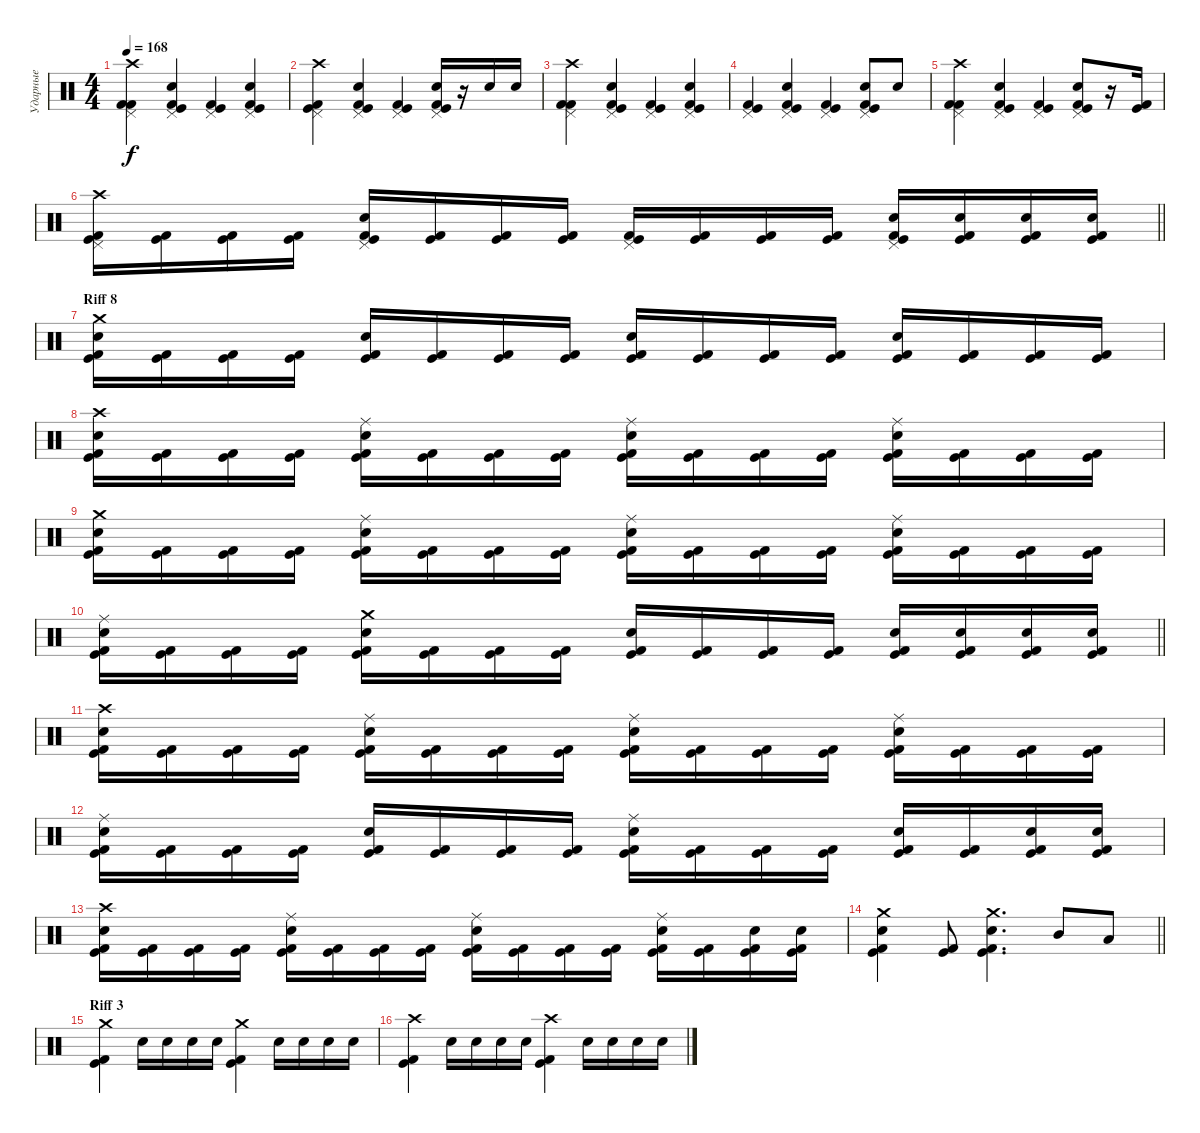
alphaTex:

\track ("Ударные" "Ударные") {instrument percussion}
\staff {score}
\articulation defaults
\ts (4 4)
\tempo 168
\clef neutral
\ks c
("Crash high (hit)" "Pedal Hi-Hat (hit)" "Kick (hit) 2" "Kick (hit) 2").4{dy f} ("Pedal Hi-Hat (hit)" "Electric Snare (hit)" "Kick (hit)" "Kick (hit) 2").4 ("Pedal Hi-Hat (hit)" "Kick (hit)" "Kick (hit) 2").4 ("Pedal Hi-Hat (hit)" "Electric Snare (hit)" "Kick (hit)" "Kick (hit) 2").4 |
("Crash high (hit)" "Pedal Hi-Hat (hit)" "Kick (hit)" "Kick (hit) 2").4 ("Pedal Hi-Hat (hit)" "Electric Snare (hit)" "Kick (hit)" "Kick (hit) 2").4 ("Pedal Hi-Hat (hit)" "Kick (hit)" "Kick (hit) 2").4 ("Pedal Hi-Hat (hit)" "Electric Snare (hit)" "Kick (hit)" "Kick (hit) 2").16 r.16 "Electric Snare (hit)".16 "Electric Snare (hit)".16 |
("Crash high (hit)" "Pedal Hi-Hat (hit)" "Kick (hit) 2" "Kick (hit) 2").4 ("Pedal Hi-Hat (hit)" "Electric Snare (hit)" "Kick (hit)" "Kick (hit) 2").4 ("Pedal Hi-Hat (hit)" "Kick (hit)" "Kick (hit) 2").4 ("Pedal Hi-Hat (hit)" "Electric Snare (hit)" "Kick (hit)" "Kick (hit) 2").4 |
("Pedal Hi-Hat (hit)" "Kick (hit)" "Kick (hit) 2").4 ("Pedal Hi-Hat (hit)" "Electric Snare (hit)" "Kick (hit)" "Kick (hit) 2").4 ("Pedal Hi-Hat (hit)" "Kick (hit)" "Kick (hit) 2").4 ("Pedal Hi-Hat (hit)" "Electric Snare (hit)" "Kick (hit)" "Kick (hit) 2").8 "Electric Snare (hit)".8 |
("Crash high (hit)" "Pedal Hi-Hat (hit)" "Kick (hit) 2" "Kick (hit) 2").4 ("Pedal Hi-Hat (hit)" "Electric Snare (hit)" "Kick (hit)" "Kick (hit) 2").4 ("Pedal Hi-Hat (hit)" "Kick (hit)" "Kick (hit) 2").4 ("Pedal Hi-Hat (hit)" "Electric Snare (hit)" "Kick (hit)" "Kick (hit) 2").8 r.16 ("Kick (hit)" "Kick (hit) 2").16 |
\barLineRight lightlight
("Crash high (hit)" "Pedal Hi-Hat (hit)" "Kick (hit)" "Kick (hit) 2").16 ("Kick (hit)" "Kick (hit) 2").16 ("Kick (hit)" "Kick (hit) 2").16 ("Kick (hit)" "Kick (hit) 2").16 ("Pedal Hi-Hat (hit)" "Electric Snare (hit)" "Kick (hit)" "Kick (hit) 2").16 ("Kick (hit)" "Kick (hit) 2").16 ("Kick (hit)" "Kick (hit) 2").16 ("Kick (hit)" "Kick (hit) 2").16 ("Pedal Hi-Hat (hit)" "Kick (hit)" "Kick (hit) 2").16 ("Kick (hit)" "Kick (hit) 2").16 ("Kick (hit)" "Kick (hit) 2").16 ("Kick (hit)" "Kick (hit) 2").16 ("Pedal Hi-Hat (hit)" "Electric Snare (hit)" "Kick (hit)" "Kick (hit) 2").16 ("Electric Snare (hit)" "Kick (hit)" "Kick (hit) 2").16 ("Electric Snare (hit)" "Kick (hit)" "Kick (hit) 2").16 ("Electric Snare (hit)" "Kick (hit)" "Kick (hit) 2").16 |
\section ("" "Riff 8")
("Crash medium (hit)" "Electric Snare (hit)" "Kick (hit)" "Kick (hit) 2").16 ("Kick (hit)" "Kick (hit) 2").16 ("Kick (hit)" "Kick (hit) 2").16 ("Kick (hit)" "Kick (hit) 2").16 ("Electric Snare (hit)" "Kick (hit)" "Kick (hit) 2").16 ("Kick (hit)" "Kick (hit) 2").16 ("Kick (hit)" "Kick (hit) 2").16 ("Kick (hit)" "Kick (hit) 2").16 ("Electric Snare (hit)" "Kick (hit)" "Kick (hit) 2").16 ("Kick (hit)" "Kick (hit) 2").16 ("Kick (hit)" "Kick (hit) 2").16 ("Kick (hit)" "Kick (hit) 2").16 ("Electric Snare (hit)" "Kick (hit)" "Kick (hit) 2").16 ("Kick (hit)" "Kick (hit) 2").16 ("Kick (hit)" "Kick (hit) 2").16 ("Kick (hit)" "Kick (hit) 2").16 |
("Crash high (hit)" "Electric Snare (hit)" "Kick (hit)" "Kick (hit) 2").16 ("Kick (hit)" "Kick (hit) 2").16 ("Kick (hit)" "Kick (hit) 2").16 ("Kick (hit)" "Kick (hit) 2").16 ("Ride (middle)" "Electric Snare (hit)" "Kick (hit)" "Kick (hit) 2").16 ("Kick (hit)" "Kick (hit) 2").16 ("Kick (hit)" "Kick (hit) 2").16 ("Kick (hit)" "Kick (hit) 2").16 ("Ride (middle)" "Electric Snare (hit)" "Kick (hit)" "Kick (hit) 2").16 ("Kick (hit)" "Kick (hit) 2").16 ("Kick (hit)" "Kick (hit) 2").16 ("Kick (hit)" "Kick (hit) 2").16 ("Ride (middle)" "Electric Snare (hit)" "Kick (hit)" "Kick (hit) 2").16 ("Kick (hit)" "Kick (hit) 2").16 ("Kick (hit)" "Kick (hit) 2").16 ("Kick (hit)" "Kick (hit) 2").16 |
("Crash medium (hit)" "Electric Snare (hit)" "Kick (hit)" "Kick (hit) 2").16 ("Kick (hit)" "Kick (hit) 2").16 ("Kick (hit)" "Kick (hit) 2").16 ("Kick (hit)" "Kick (hit) 2").16 ("Ride (middle)" "Electric Snare (hit)" "Kick (hit)" "Kick (hit) 2").16 ("Kick (hit)" "Kick (hit) 2").16 ("Kick (hit)" "Kick (hit) 2").16 ("Kick (hit)" "Kick (hit) 2").16 ("Ride (middle)" "Electric Snare (hit)" "Kick (hit)" "Kick (hit) 2").16 ("Kick (hit)" "Kick (hit) 2").16 ("Kick (hit)" "Kick (hit) 2").16 ("Kick (hit)" "Kick (hit) 2").16 ("Ride (middle)" "Electric Snare (hit)" "Kick (hit)" "Kick (hit) 2").16 ("Kick (hit)" "Kick (hit) 2").16 ("Kick (hit)" "Kick (hit) 2").16 ("Kick (hit)" "Kick (hit) 2").16 |
\barLineRight lightlight
("Ride (middle)" "Electric Snare (hit)" "Kick (hit)" "Kick (hit) 2").16 ("Kick (hit)" "Kick (hit) 2").16 ("Kick (hit)" "Kick (hit) 2").16 ("Kick (hit)" "Kick (hit) 2").16 ("Crash medium (hit)" "Electric Snare (hit)" "Kick (hit)" "Kick (hit) 2").16 ("Kick (hit)" "Kick (hit) 2").16 ("Kick (hit)" "Kick (hit) 2").16 ("Kick (hit)" "Kick (hit) 2").16 ("Electric Snare (hit)" "Kick (hit)" "Kick (hit) 2").16 ("Kick (hit)" "Kick (hit) 2").16 ("Kick (hit)" "Kick (hit) 2").16 ("Kick (hit)" "Kick (hit) 2").16 ("Electric Snare (hit)" "Kick (hit)" "Kick (hit) 2").16 ("Electric Snare (hit)" "Kick (hit)" "Kick (hit) 2").16 ("Electric Snare (hit)" "Kick (hit)" "Kick (hit) 2").16 ("Electric Snare (hit)" "Kick (hit)" "Kick (hit) 2").16 |
("Crash high (hit)" "Electric Snare (hit)" "Kick (hit)" "Kick (hit) 2").16 ("Kick (hit)" "Kick (hit) 2").16 ("Kick (hit)" "Kick (hit) 2").16 ("Kick (hit)" "Kick (hit) 2").16 ("Ride (middle)" "Electric Snare (hit)" "Kick (hit)" "Kick (hit) 2").16 ("Kick (hit)" "Kick (hit) 2").16 ("Kick (hit)" "Kick (hit) 2").16 ("Kick (hit)" "Kick (hit) 2").16 ("Ride (middle)" "Electric Snare (hit)" "Kick (hit)" "Kick (hit) 2").16 ("Kick (hit)" "Kick (hit) 2").16 ("Kick (hit)" "Kick (hit) 2").16 ("Kick (hit)" "Kick (hit) 2").16 ("Ride (middle)" "Electric Snare (hit)" "Kick (hit)" "Kick (hit) 2").16 ("Kick (hit)" "Kick (hit) 2").16 ("Kick (hit)" "Kick (hit) 2").16 ("Kick (hit)" "Kick (hit) 2").16 |
("Ride (middle)" "Electric Snare (hit)" "Kick (hit)" "Kick (hit) 2").16 ("Kick (hit)" "Kick (hit) 2").16 ("Kick (hit)" "Kick (hit) 2").16 ("Kick (hit)" "Kick (hit) 2").16 ("Electric Snare (hit)" "Kick (hit)" "Kick (hit) 2").16 ("Kick (hit)" "Kick (hit) 2").16 ("Kick (hit)" "Kick (hit) 2").16 ("Kick (hit)" "Kick (hit) 2").16 ("Ride (middle)" "Electric Snare (hit)" "Kick (hit)" "Kick (hit) 2").16 ("Kick (hit)" "Kick (hit) 2").16 ("Kick (hit)" "Kick (hit) 2").16 ("Kick (hit)" "Kick (hit) 2").16 ("Electric Snare (hit)" "Kick (hit)" "Kick (hit) 2").16 ("Kick (hit)" "Kick (hit) 2").16 ("Electric Snare (hit)" "Kick (hit)" "Kick (hit) 2").16 ("Electric Snare (hit)" "Kick (hit)" "Kick (hit) 2").16 |
("Crash high (hit)" "Electric Snare (hit)" "Kick (hit)" "Kick (hit) 2").16 ("Kick (hit)" "Kick (hit) 2").16 ("Kick (hit)" "Kick (hit) 2").16 ("Kick (hit)" "Kick (hit) 2").16 ("Ride (middle)" "Electric Snare (hit)" "Kick (hit)" "Kick (hit) 2").16 ("Kick (hit)" "Kick (hit) 2").16 ("Kick (hit)" "Kick (hit) 2").16 ("Kick (hit)" "Kick (hit) 2").16 ("Ride (middle)" "Electric Snare (hit)" "Kick (hit)" "Kick (hit) 2").16 ("Kick (hit)" "Kick (hit) 2").16 ("Kick (hit)" "Kick (hit) 2").16 ("Kick (hit)" "Kick (hit) 2").16 ("Ride (middle)" "Electric Snare (hit)" "Kick (hit)" "Kick (hit) 2").16 ("Kick (hit)" "Kick (hit) 2").16 ("Electric Snare (hit)" "Kick (hit)" "Kick (hit) 2").16 ("Electric Snare (hit)" "Kick (hit)" "Kick (hit) 2").16 |
\barLineRight lightlight
("Crash medium (hit)" "Electric Snare (hit)" "Kick (hit)" "Kick (hit) 2").4 ("Kick (hit)" "Kick (hit) 2").8 ("Crash medium (hit)" "Electric Snare (hit)" "Kick (hit)" "Kick (hit) 2").4{d} "Mid Tom (hit)".8 "Low Tom (hit)".8 |
\section ("" "Riff 3")
("Crash medium (hit)" "Kick (hit)" "Kick (hit) 2").4 "Electric Snare (hit)".16 "Electric Snare (hit)".16 "Electric Snare (hit)".16 "Electric Snare (hit)".16 ("Crash medium (hit)" "Kick (hit)" "Kick (hit) 2").4 "Electric Snare (hit)".16 "Electric Snare (hit)".16 "Electric Snare (hit)".16 "Electric Snare (hit)".16 |
("Crash high (hit)" "Kick (hit)" "Kick (hit) 2").4 "Electric Snare (hit)".16 "Electric Snare (hit)".16 "Electric Snare (hit)".16 "Electric Snare (hit)".16 ("Crash high (hit)" "Kick (hit)" "Kick (hit) 2").4 "Electric Snare (hit)".16 "Electric Snare (hit)".16 "Electric Snare (hit)".16 "Electric Snare (hit)".16
